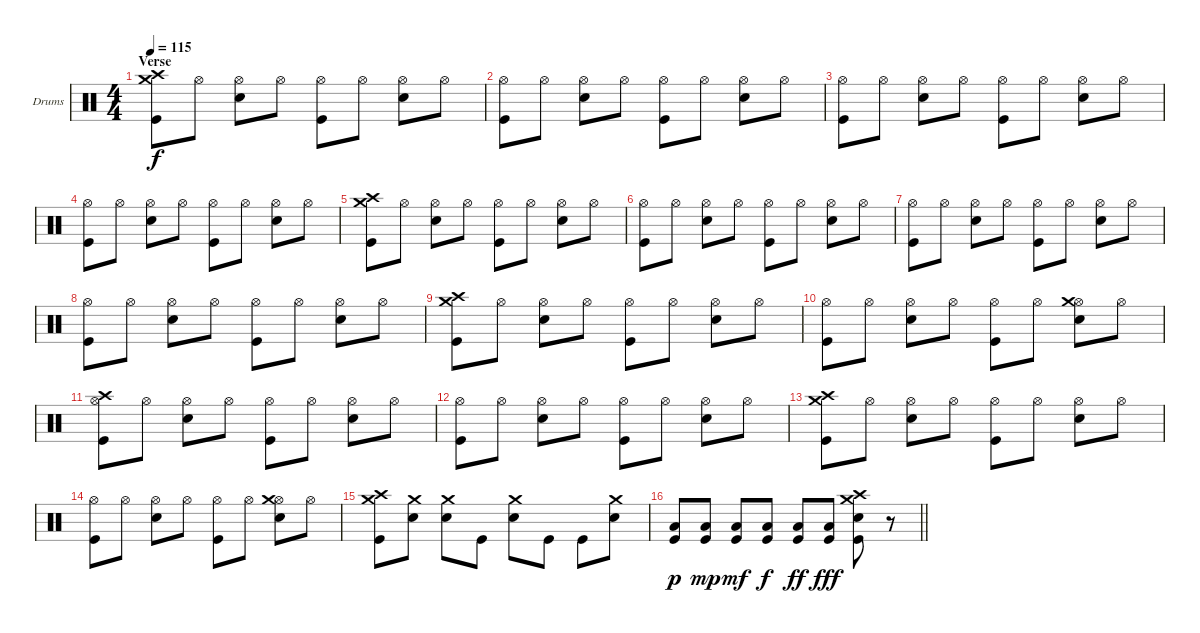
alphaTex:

\bracketExtendMode groupsimilarinstruments
\firstSystemTrackNameOrientation horizontal
\otherSystemsTrackNameOrientation horizontal
\track ("Drumkit" "Drums") {instrument percussion}
\staff {score}
\articulation defaults
\ts (4 4)
\section ("" "Verse")
\tempo 115
\clef neutral
\ks c
("Crash medium (hit)" "Crash high (hit)" "Kick (hit)").8{dy f} "Hi-Hat (open)".8 ("Hi-Hat (open)" "Snare (hit) 2").8 "Hi-Hat (open)".8 ("Hi-Hat (open)" "Kick (hit)").8 "Hi-Hat (open)".8 ("Hi-Hat (open)" "Snare (hit) 2").8 "Hi-Hat (open)".8 |
("Hi-Hat (open)" "Kick (hit)").8 "Hi-Hat (open)".8 ("Hi-Hat (open)" "Snare (hit) 2").8 "Hi-Hat (open)".8 ("Hi-Hat (open)" "Kick (hit)").8 "Hi-Hat (open)".8 ("Hi-Hat (open)" "Snare (hit) 2").8 "Hi-Hat (open)".8 |
("Hi-Hat (open)" "Kick (hit)").8 "Hi-Hat (open)".8 ("Hi-Hat (open)" "Snare (hit) 2").8 "Hi-Hat (open)".8 ("Hi-Hat (open)" "Kick (hit)").8 "Hi-Hat (open)".8 ("Hi-Hat (open)" "Snare (hit) 2").8 "Hi-Hat (open)".8 |
("Hi-Hat (open)" "Kick (hit)").8 "Hi-Hat (open)".8 ("Hi-Hat (open)" "Snare (hit) 2").8 "Hi-Hat (open)".8 ("Hi-Hat (open)" "Kick (hit)").8 "Hi-Hat (open)".8 ("Hi-Hat (open)" "Snare (hit) 2").8 "Hi-Hat (open)".8 |
("Crash medium (hit)" "Crash high (hit)" "Kick (hit)").8 "Hi-Hat (open)".8 ("Hi-Hat (open)" "Snare (hit) 2").8 "Hi-Hat (open)".8 ("Hi-Hat (open)" "Kick (hit)").8 "Hi-Hat (open)".8 ("Hi-Hat (open)" "Snare (hit) 2").8 "Hi-Hat (open)".8 |
("Hi-Hat (open)" "Kick (hit)").8 "Hi-Hat (open)".8 ("Hi-Hat (open)" "Snare (hit) 2").8 "Hi-Hat (open)".8 ("Hi-Hat (open)" "Kick (hit)").8 "Hi-Hat (open)".8 ("Hi-Hat (open)" "Snare (hit) 2").8 "Hi-Hat (open)".8 |
("Hi-Hat (open)" "Kick (hit)").8 "Hi-Hat (open)".8 ("Hi-Hat (open)" "Snare (hit) 2").8 "Hi-Hat (open)".8 ("Hi-Hat (open)" "Kick (hit)").8 "Hi-Hat (open)".8 ("Hi-Hat (open)" "Snare (hit) 2").8 "Hi-Hat (open)".8 |
("Hi-Hat (open)" "Kick (hit)").8 "Hi-Hat (open)".8 ("Hi-Hat (open)" "Snare (hit) 2").8 "Hi-Hat (open)".8 ("Hi-Hat (open)" "Kick (hit)").8 "Hi-Hat (open)".8 ("Hi-Hat (open)" "Snare (hit) 2").8 "Hi-Hat (open)".8 |
("Crash medium (hit)" "Crash high (hit)" "Kick (hit)").8 "Hi-Hat (open)".8 ("Hi-Hat (open)" "Snare (hit) 2").8 "Hi-Hat (open)".8 ("Hi-Hat (open)" "Kick (hit)").8 "Hi-Hat (open)".8 ("Hi-Hat (open)" "Snare (hit) 2").8 "Hi-Hat (open)".8 |
("Hi-Hat (open)" "Kick (hit)").8 "Hi-Hat (open)".8 ("Hi-Hat (open)" "Snare (hit) 2").8 "Hi-Hat (open)".8 ("Hi-Hat (open)" "Kick (hit)").8 "Hi-Hat (open)".8 ("Hi-Hat (open)" "Crash medium (hit)" "Snare (hit) 2").8 "Hi-Hat (open)".8 |
("Hi-Hat (open)" "Crash high (hit)" "Kick (hit)").8 "Hi-Hat (open)".8 ("Hi-Hat (open)" "Snare (hit) 2").8 "Hi-Hat (open)".8 ("Hi-Hat (open)" "Kick (hit)").8 "Hi-Hat (open)".8 ("Hi-Hat (open)" "Snare (hit) 2").8 "Hi-Hat (open)".8 |
("Hi-Hat (open)" "Kick (hit)").8 "Hi-Hat (open)".8 ("Hi-Hat (open)" "Snare (hit) 2").8 "Hi-Hat (open)".8 ("Hi-Hat (open)" "Kick (hit)").8 "Hi-Hat (open)".8 ("Hi-Hat (open)" "Snare (hit) 2").8 "Hi-Hat (open)".8 |
("Crash medium (hit)" "Crash high (hit)" "Kick (hit)").8 "Hi-Hat (open)".8 ("Hi-Hat (open)" "Snare (hit) 2").8 "Hi-Hat (open)".8 ("Hi-Hat (open)" "Kick (hit)").8 "Hi-Hat (open)".8 ("Hi-Hat (open)" "Snare (hit) 2").8 "Hi-Hat (open)".8 |
("Hi-Hat (open)" "Kick (hit)").8 "Hi-Hat (open)".8 ("Hi-Hat (open)" "Snare (hit) 2").8 "Hi-Hat (open)".8 ("Hi-Hat (open)" "Kick (hit)").8 "Hi-Hat (open)".8 ("Hi-Hat (open)" "Crash medium (hit)" "Snare (hit) 2").8 "Hi-Hat (open)".8 |
("Crash medium (hit)" "Crash high (hit)" "Kick (hit)").8 ("Crash medium (hit)" "Snare (hit) 2").8 ("Crash medium (hit)" "Snare (hit) 2").8 "Kick (hit)".8 ("Crash medium (hit)" "Snare (hit) 2").8 "Kick (hit)".8 "Kick (hit)".8 ("Crash medium (hit)" "Snare (hit) 2").8 |
\barLineRight lightlight
("Low Tom (hit)" "Kick (hit)").8{dy p} ("Low Tom (hit)" "Kick (hit)").8{dy mp} ("Low Tom (hit)" "Kick (hit)").8{dy mf} ("Low Tom (hit)" "Kick (hit)").8{dy f} ("Low Tom (hit)" "Kick (hit)").8{dy ff} ("Low Tom (hit)" "Kick (hit)").8{dy fff} ("Kick (hit)" "Crash high (hit)" "Crash medium (hit)" "Snare (hit) 2").8 r.8
